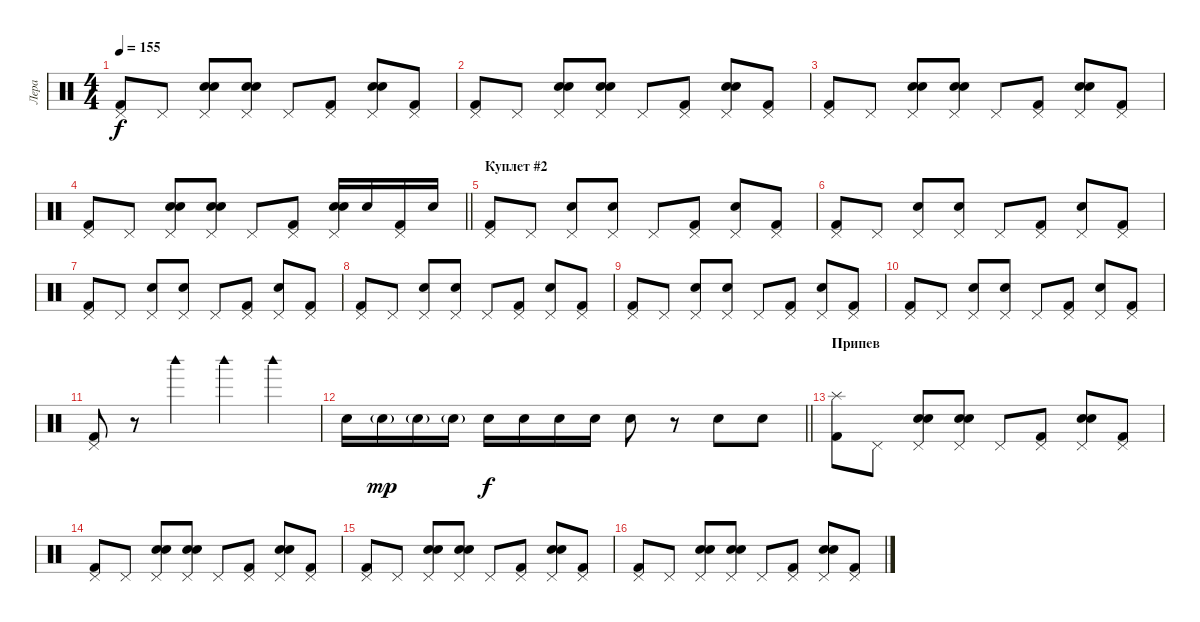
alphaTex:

\track ("Лера" "Лера") {instrument percussion}
\staff {score}
\articulation defaults
\ts (4 4)
\tempo 155
\clef neutral
\ks c
("Pedal Hi-Hat (hit)" "Kick (hit) 2").8{dy f} "Pedal Hi-Hat (hit)".8 ("Pedal Hi-Hat (hit)" "Hand Clap (hit)" "Electric Snare (hit)").8 ("Pedal Hi-Hat (hit)" "Hand Clap (hit)" "Electric Snare (hit)").8 "Pedal Hi-Hat (hit)".8 ("Pedal Hi-Hat (hit)" "Kick (hit) 2").8 ("Pedal Hi-Hat (hit)" "Hand Clap (hit)" "Electric Snare (hit)").8 ("Pedal Hi-Hat (hit)" "Kick (hit) 2").8 |
("Pedal Hi-Hat (hit)" "Kick (hit) 2").8 "Pedal Hi-Hat (hit)".8 ("Pedal Hi-Hat (hit)" "Hand Clap (hit)" "Electric Snare (hit)").8 ("Pedal Hi-Hat (hit)" "Hand Clap (hit)" "Electric Snare (hit)").8 "Pedal Hi-Hat (hit)".8 ("Pedal Hi-Hat (hit)" "Kick (hit) 2").8 ("Pedal Hi-Hat (hit)" "Hand Clap (hit)" "Electric Snare (hit)").8 ("Pedal Hi-Hat (hit)" "Kick (hit) 2").8 |
("Pedal Hi-Hat (hit)" "Kick (hit) 2").8 "Pedal Hi-Hat (hit)".8 ("Pedal Hi-Hat (hit)" "Hand Clap (hit)" "Electric Snare (hit)").8 ("Pedal Hi-Hat (hit)" "Hand Clap (hit)" "Electric Snare (hit)").8 "Pedal Hi-Hat (hit)".8 ("Pedal Hi-Hat (hit)" "Kick (hit) 2").8 ("Pedal Hi-Hat (hit)" "Hand Clap (hit)" "Electric Snare (hit)").8 ("Pedal Hi-Hat (hit)" "Kick (hit) 2").8 |
\barLineRight lightlight
("Pedal Hi-Hat (hit)" "Kick (hit) 2").8 "Pedal Hi-Hat (hit)".8 ("Pedal Hi-Hat (hit)" "Hand Clap (hit)" "Electric Snare (hit)").8 ("Pedal Hi-Hat (hit)" "Hand Clap (hit)" "Electric Snare (hit)").8 "Pedal Hi-Hat (hit)".8 ("Pedal Hi-Hat (hit)" "Kick (hit) 2").8 ("Pedal Hi-Hat (hit)" "Hand Clap (hit)" "Electric Snare (hit)").16 "Electric Snare (hit)".16 ("Pedal Hi-Hat (hit)" "Kick (hit) 2").16 "Electric Snare (hit)".16 |
\section ("" "Куплет #2")
("Pedal Hi-Hat (hit)" "Kick (hit) 2").8 "Pedal Hi-Hat (hit)".8 ("Pedal Hi-Hat (hit)" "Electric Snare (hit)").8 ("Pedal Hi-Hat (hit)" "Electric Snare (hit)").8 "Pedal Hi-Hat (hit)".8 ("Pedal Hi-Hat (hit)" "Kick (hit) 2").8 ("Pedal Hi-Hat (hit)" "Electric Snare (hit)").8 ("Pedal Hi-Hat (hit)" "Kick (hit) 2").8 |
("Pedal Hi-Hat (hit)" "Kick (hit) 2").8 "Pedal Hi-Hat (hit)".8 ("Pedal Hi-Hat (hit)" "Electric Snare (hit)").8 ("Pedal Hi-Hat (hit)" "Electric Snare (hit)").8 "Pedal Hi-Hat (hit)".8 ("Pedal Hi-Hat (hit)" "Kick (hit) 2").8 ("Pedal Hi-Hat (hit)" "Electric Snare (hit)").8 ("Pedal Hi-Hat (hit)" "Kick (hit) 2").8 |
("Pedal Hi-Hat (hit)" "Kick (hit) 2").8 "Pedal Hi-Hat (hit)".8 ("Pedal Hi-Hat (hit)" "Electric Snare (hit)").8 ("Pedal Hi-Hat (hit)" "Electric Snare (hit)").8 "Pedal Hi-Hat (hit)".8 ("Pedal Hi-Hat (hit)" "Kick (hit) 2").8 ("Pedal Hi-Hat (hit)" "Electric Snare (hit)").8 ("Pedal Hi-Hat (hit)" "Kick (hit) 2").8 |
("Pedal Hi-Hat (hit)" "Kick (hit) 2").8 "Pedal Hi-Hat (hit)".8 ("Pedal Hi-Hat (hit)" "Electric Snare (hit)").8 ("Pedal Hi-Hat (hit)" "Electric Snare (hit)").8 "Pedal Hi-Hat (hit)".8 ("Pedal Hi-Hat (hit)" "Kick (hit) 2").8 ("Pedal Hi-Hat (hit)" "Electric Snare (hit)").8 ("Pedal Hi-Hat (hit)" "Kick (hit) 2").8 |
("Pedal Hi-Hat (hit)" "Kick (hit) 2").8 "Pedal Hi-Hat (hit)".8 ("Pedal Hi-Hat (hit)" "Electric Snare (hit)").8 ("Pedal Hi-Hat (hit)" "Electric Snare (hit)").8 "Pedal Hi-Hat (hit)".8 ("Pedal Hi-Hat (hit)" "Kick (hit) 2").8 ("Pedal Hi-Hat (hit)" "Electric Snare (hit)").8 ("Pedal Hi-Hat (hit)" "Kick (hit) 2").8 |
("Pedal Hi-Hat (hit)" "Kick (hit) 2").8 "Pedal Hi-Hat (hit)".8 ("Pedal Hi-Hat (hit)" "Electric Snare (hit)").8 ("Pedal Hi-Hat (hit)" "Electric Snare (hit)").8 "Pedal Hi-Hat (hit)".8 ("Pedal Hi-Hat (hit)" "Kick (hit) 2").8 ("Pedal Hi-Hat (hit)" "Electric Snare (hit)").8 ("Pedal Hi-Hat (hit)" "Kick (hit) 2").8 |
("Pedal Hi-Hat (hit)" "Kick (hit) 2").8 r.8 "Woodblock high (hit)".4 "Woodblock high (hit)".4 "Woodblock high (hit)".4 |
\barLineRight lightlight "Electric Snare (hit)".16 "Electric Snare (hit)"{g}.16{dy mp} "Electric Snare (hit)"{g}.16 "Electric Snare (hit)"{g}.16 "Electric Snare (hit)".16{dy f} "Electric Snare (hit)".16 "Electric Snare (hit)".16 "Electric Snare (hit)".16 "Electric Snare (hit)".8
r.8 "Electric Snare (hit)".8 "Electric Snare (hit)".8 |
\section ("" "Припев")
("Splash (hit)" "Kick (hit) 2").8 "Pedal Hi-Hat (hit)".8 ("Pedal Hi-Hat (hit)" "Hand Clap (hit)" "Electric Snare (hit)").8 ("Pedal Hi-Hat (hit)" "Hand Clap (hit)" "Electric Snare (hit)").8 "Pedal Hi-Hat (hit)".8 ("Pedal Hi-Hat (hit)" "Kick (hit) 2").8 ("Pedal Hi-Hat (hit)" "Hand Clap (hit)" "Electric Snare (hit)").8 ("Pedal Hi-Hat (hit)" "Kick (hit) 2").8 |
("Pedal Hi-Hat (hit)" "Kick (hit) 2").8 "Pedal Hi-Hat (hit)".8 ("Pedal Hi-Hat (hit)" "Hand Clap (hit)" "Electric Snare (hit)").8 ("Pedal Hi-Hat (hit)" "Hand Clap (hit)" "Electric Snare (hit)").8 "Pedal Hi-Hat (hit)".8 ("Pedal Hi-Hat (hit)" "Kick (hit) 2").8 ("Pedal Hi-Hat (hit)" "Hand Clap (hit)" "Electric Snare (hit)").8 ("Pedal Hi-Hat (hit)" "Kick (hit) 2").8 |
("Pedal Hi-Hat (hit)" "Kick (hit) 2").8 "Pedal Hi-Hat (hit)".8 ("Pedal Hi-Hat (hit)" "Hand Clap (hit)" "Electric Snare (hit)").8 ("Pedal Hi-Hat (hit)" "Hand Clap (hit)" "Electric Snare (hit)").8 "Pedal Hi-Hat (hit)".8 ("Pedal Hi-Hat (hit)" "Kick (hit) 2").8 ("Pedal Hi-Hat (hit)" "Hand Clap (hit)" "Electric Snare (hit)").8 ("Pedal Hi-Hat (hit)" "Kick (hit) 2").8 |
("Pedal Hi-Hat (hit)" "Kick (hit) 2").8 "Pedal Hi-Hat (hit)".8 ("Pedal Hi-Hat (hit)" "Hand Clap (hit)" "Electric Snare (hit)").8 ("Pedal Hi-Hat (hit)" "Hand Clap (hit)" "Electric Snare (hit)").8 "Pedal Hi-Hat (hit)".8 ("Pedal Hi-Hat (hit)" "Kick (hit) 2").8 ("Pedal Hi-Hat (hit)" "Hand Clap (hit)" "Electric Snare (hit)").8 ("Pedal Hi-Hat (hit)" "Kick (hit) 2").8
